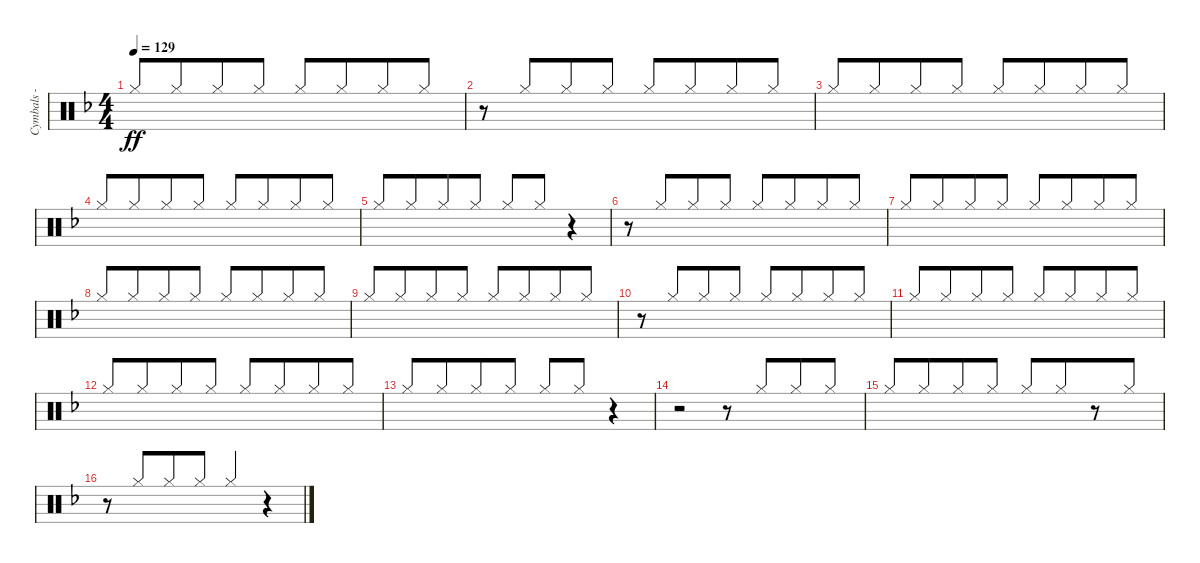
\track ("Cymbals - hi-hat" "Cymbals - ") {instrument percussion}
\staff {score}
\articulation defaults
\ts (4 4)
\tempo 129
\clef neutral
\ks dminor "Hi-Hat (closed)".8{dy ff beam Up} "Hi-Hat (closed)".8{beam Up beam merge} "Hi-Hat (closed)".8{beam Up} "Hi-Hat (closed)".8{beam Up} "Hi-Hat (closed)".8{beam Up} "Hi-Hat (closed)".8{beam Up beam merge} "Hi-Hat (closed)".8{beam Up} "Hi-Hat (closed)".8{beam Up}
|
r.8 "Hi-Hat (closed)".8{beam Up beam merge} "Hi-Hat (closed)".8{beam Up} "Hi-Hat (closed)".8{beam Up} "Hi-Hat (closed)".8{beam Up} "Hi-Hat (closed)".8{beam Up beam merge} "Hi-Hat (closed)".8{beam Up} "Hi-Hat (closed)".8{beam Up} |
"Hi-Hat (closed)".8{beam Up} "Hi-Hat (closed)".8{beam Up beam merge} "Hi-Hat (closed)".8{beam Up} "Hi-Hat (closed)".8{beam Up} "Hi-Hat (closed)".8{beam Up} "Hi-Hat (closed)".8{beam Up beam merge} "Hi-Hat (closed)".8{beam Up} "Hi-Hat (closed)".8{beam Up} |
"Hi-Hat (closed)".8{beam Up} "Hi-Hat (closed)".8{beam Up beam merge} "Hi-Hat (closed)".8{beam Up} "Hi-Hat (closed)".8{beam Up} "Hi-Hat (closed)".8{beam Up} "Hi-Hat (closed)".8{beam Up beam merge} "Hi-Hat (closed)".8{beam Up} "Hi-Hat (closed)".8{beam Up} |
"Hi-Hat (closed)".8{beam Up} "Hi-Hat (closed)".8{beam Up beam merge} "Hi-Hat (closed)".8{beam Up} "Hi-Hat (closed)".8{beam Up} "Hi-Hat (closed)".8{beam Up} "Hi-Hat (closed)".8{beam Up} r.4 |
r.8 "Hi-Hat (closed)".8{beam Up beam merge} "Hi-Hat (closed)".8{beam Up} "Hi-Hat (closed)".8{beam Up} "Hi-Hat (closed)".8{beam Up} "Hi-Hat (closed)".8{beam Up beam merge} "Hi-Hat (closed)".8{beam Up} "Hi-Hat (closed)".8{beam Up} |
"Hi-Hat (closed)".8{beam Up} "Hi-Hat (closed)".8{beam Up beam merge} "Hi-Hat (closed)".8{beam Up} "Hi-Hat (closed)".8{beam Up} "Hi-Hat (closed)".8{beam Up} "Hi-Hat (closed)".8{beam Up beam merge} "Hi-Hat (closed)".8{beam Up} "Hi-Hat (closed)".8{beam Up} |
"Hi-Hat (closed)".8{beam Up} "Hi-Hat (closed)".8{beam Up beam merge} "Hi-Hat (closed)".8{beam Up} "Hi-Hat (closed)".8{beam Up} "Hi-Hat (closed)".8{beam Up} "Hi-Hat (closed)".8{beam Up beam merge} "Hi-Hat (closed)".8{beam Up} "Hi-Hat (closed)".8{beam Up} |
"Hi-Hat (closed)".8{beam Up} "Hi-Hat (closed)".8{beam Up beam merge} "Hi-Hat (closed)".8{beam Up} "Hi-Hat (closed)".8{beam Up} "Hi-Hat (closed)".8{beam Up} "Hi-Hat (closed)".8{beam Up beam merge} "Hi-Hat (closed)".8{beam Up} "Hi-Hat (closed)".8{beam Up} |
r.8 "Hi-Hat (closed)".8{beam Up beam merge} "Hi-Hat (closed)".8{beam Up} "Hi-Hat (closed)".8{beam Up} "Hi-Hat (closed)".8{beam Up} "Hi-Hat (closed)".8{beam Up beam merge} "Hi-Hat (closed)".8{beam Up} "Hi-Hat (closed)".8{beam Up} |
"Hi-Hat (closed)".8{beam Up} "Hi-Hat (closed)".8{beam Up beam merge} "Hi-Hat (closed)".8{beam Up} "Hi-Hat (closed)".8{beam Up} "Hi-Hat (closed)".8{beam Up} "Hi-Hat (closed)".8{beam Up beam merge} "Hi-Hat (closed)".8{beam Up} "Hi-Hat (closed)".8{beam Up} |
"Hi-Hat (closed)".8{beam Up} "Hi-Hat (closed)".8{beam Up beam merge} "Hi-Hat (closed)".8{beam Up} "Hi-Hat (closed)".8{beam Up} "Hi-Hat (closed)".8{beam Up} "Hi-Hat (closed)".8{beam Up beam merge} "Hi-Hat (closed)".8{beam Up} "Hi-Hat (closed)".8{beam Up} |
"Hi-Hat (closed)".8{beam Up} "Hi-Hat (closed)".8{beam Up beam merge} "Hi-Hat (closed)".8{beam Up} "Hi-Hat (closed)".8{beam Up} "Hi-Hat (closed)".8{beam Up} "Hi-Hat (closed)".8{beam Up} r.4 |
r.2 r.8 "Hi-Hat (closed)".8{beam Up beam merge} "Hi-Hat (closed)".8{beam Up} "Hi-Hat (closed)".8{beam Up} |
"Hi-Hat (closed)".8{beam Up} "Hi-Hat (closed)".8{beam Up beam merge} "Hi-Hat (closed)".8{beam Up} "Hi-Hat (closed)".8{beam Up} "Hi-Hat (closed)".8{beam Up} "Hi-Hat (closed)".8{beam Up beam merge} r.8 "Hi-Hat (closed)".8{beam Up} |
r.8 "Hi-Hat (closed)".8{beam Up beam merge} "Hi-Hat (closed)".8{beam Up} "Hi-Hat (closed)".8{beam Up} "Hi-Hat (closed)".4{beam Up} r.4
